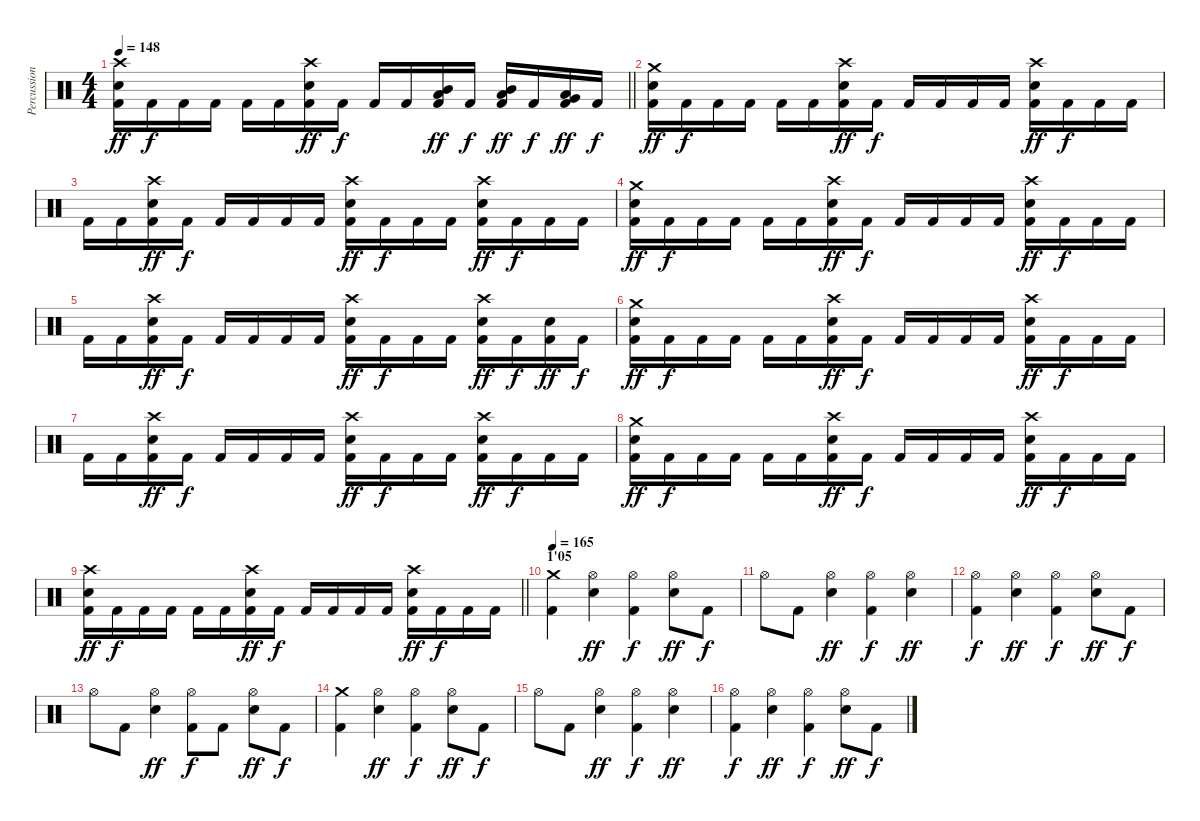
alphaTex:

\track ("Percussions" "Percussion") {instrument percussion}
\staff {score}
\articulation defaults
\ts (4 4)
\tempo 148
\clef neutral
\barLineRight lightlight
\ks c
("Crash high (hit)" "Electric Snare (hit)" "Kick (hit) 2").16{dy ff} "Kick (hit) 2".16{dy f} "Kick (hit) 2".16 "Kick (hit) 2".16 "Kick (hit) 2".16 "Kick (hit) 2".16 ("Crash high (hit)" "Electric Snare (hit)" "Kick (hit) 2").16{dy ff} "Kick (hit) 2".16{dy f} "Kick (hit) 2".16 "Kick (hit) 2".16 ("Mid Tom (hit)" "Low Tom (hit)" "Kick (hit) 2").16{dy ff} "Kick (hit) 2".16{dy f} ("Mid Tom (hit)" "Low Tom (hit)" "Kick (hit) 2").16{dy ff} "Kick (hit) 2".16{dy f} ("Low Tom (hit)" "Very Low Tom (hit)" "Kick (hit) 2").16{dy ff} "Kick (hit) 2".16{dy f} |
("Crash medium (hit)" "Electric Snare (hit)" "Kick (hit) 2").16{dy ff} "Kick (hit) 2".16{dy f} "Kick (hit) 2".16 "Kick (hit) 2".16 "Kick (hit) 2".16 "Kick (hit) 2".16 ("Crash high (hit)" "Electric Snare (hit)" "Kick (hit) 2").16{dy ff} "Kick (hit) 2".16{dy f} "Kick (hit) 2".16 "Kick (hit) 2".16 "Kick (hit) 2".16 "Kick (hit) 2".16 ("Crash high (hit)" "Electric Snare (hit)" "Kick (hit) 2").16{dy ff} "Kick (hit) 2".16{dy f} "Kick (hit) 2".16 "Kick (hit) 2".16 |
"Kick (hit) 2".16 "Kick (hit) 2".16 ("Crash high (hit)" "Electric Snare (hit)" "Kick (hit) 2").16{dy ff} "Kick (hit) 2".16{dy f} "Kick (hit) 2".16 "Kick (hit) 2".16 "Kick (hit) 2".16 "Kick (hit) 2".16 ("Crash high (hit)" "Electric Snare (hit)" "Kick (hit) 2").16{dy ff} "Kick (hit) 2".16{dy f} "Kick (hit) 2".16 "Kick (hit) 2".16 ("Crash high (hit)" "Electric Snare (hit)" "Kick (hit) 2").16{dy ff} "Kick (hit) 2".16{dy f} "Kick (hit) 2".16 "Kick (hit) 2".16 |
("Crash medium (hit)" "Electric Snare (hit)" "Kick (hit) 2").16{dy ff} "Kick (hit) 2".16{dy f} "Kick (hit) 2".16 "Kick (hit) 2".16 "Kick (hit) 2".16 "Kick (hit) 2".16 ("Crash high (hit)" "Electric Snare (hit)" "Kick (hit) 2").16{dy ff} "Kick (hit) 2".16{dy f} "Kick (hit) 2".16 "Kick (hit) 2".16 "Kick (hit) 2".16 "Kick (hit) 2".16 ("Crash high (hit)" "Electric Snare (hit)" "Kick (hit) 2").16{dy ff} "Kick (hit) 2".16{dy f} "Kick (hit) 2".16 "Kick (hit) 2".16 |
"Kick (hit) 2".16 "Kick (hit) 2".16 ("Crash high (hit)" "Electric Snare (hit)" "Kick (hit) 2").16{dy ff} "Kick (hit) 2".16{dy f} "Kick (hit) 2".16 "Kick (hit) 2".16 "Kick (hit) 2".16 "Kick (hit) 2".16 ("Crash high (hit)" "Electric Snare (hit)" "Kick (hit) 2").16{dy ff} "Kick (hit) 2".16{dy f} "Kick (hit) 2".16 "Kick (hit) 2".16 ("Crash high (hit)" "Electric Snare (hit)" "Kick (hit) 2").16{dy ff} "Kick (hit) 2".16{dy f} ("Electric Snare (hit)" "Kick (hit) 2").16{dy ff} "Kick (hit) 2".16{dy f} |
("Crash medium (hit)" "Electric Snare (hit)" "Kick (hit) 2").16{dy ff} "Kick (hit) 2".16{dy f} "Kick (hit) 2".16 "Kick (hit) 2".16 "Kick (hit) 2".16 "Kick (hit) 2".16 ("Crash high (hit)" "Electric Snare (hit)" "Kick (hit) 2").16{dy ff} "Kick (hit) 2".16{dy f} "Kick (hit) 2".16 "Kick (hit) 2".16 "Kick (hit) 2".16 "Kick (hit) 2".16 ("Crash high (hit)" "Electric Snare (hit)" "Kick (hit) 2").16{dy ff} "Kick (hit) 2".16{dy f} "Kick (hit) 2".16 "Kick (hit) 2".16 |
"Kick (hit) 2".16 "Kick (hit) 2".16 ("Crash high (hit)" "Electric Snare (hit)" "Kick (hit) 2").16{dy ff} "Kick (hit) 2".16{dy f} "Kick (hit) 2".16 "Kick (hit) 2".16 "Kick (hit) 2".16 "Kick (hit) 2".16 ("Crash high (hit)" "Electric Snare (hit)" "Kick (hit) 2").16{dy ff} "Kick (hit) 2".16{dy f} "Kick (hit) 2".16 "Kick (hit) 2".16 ("Crash high (hit)" "Electric Snare (hit)" "Kick (hit) 2").16{dy ff} "Kick (hit) 2".16{dy f} "Kick (hit) 2".16 "Kick (hit) 2".16 |
("Crash medium (hit)" "Electric Snare (hit)" "Kick (hit) 2").16{dy ff} "Kick (hit) 2".16{dy f} "Kick (hit) 2".16 "Kick (hit) 2".16 "Kick (hit) 2".16 "Kick (hit) 2".16 ("Crash high (hit)" "Electric Snare (hit)" "Kick (hit) 2").16{dy ff} "Kick (hit) 2".16{dy f} "Kick (hit) 2".16 "Kick (hit) 2".16 "Kick (hit) 2".16 "Kick (hit) 2".16 ("Crash high (hit)" "Electric Snare (hit)" "Kick (hit) 2").16{dy ff} "Kick (hit) 2".16{dy f} "Kick (hit) 2".16 "Kick (hit) 2".16 |
\barLineRight lightlight
("Crash high (hit)" "Electric Snare (hit)" "Kick (hit) 2").16{dy ff} "Kick (hit) 2".16{dy f} "Kick (hit) 2".16 "Kick (hit) 2".16 "Kick (hit) 2".16 "Kick (hit) 2".16 ("Crash high (hit)" "Electric Snare (hit)" "Kick (hit) 2").16{dy ff} "Kick (hit) 2".16{dy f} "Kick (hit) 2".16 "Kick (hit) 2".16 "Kick (hit) 2".16 "Kick (hit) 2".16 ("Crash high (hit)" "Electric Snare (hit)" "Kick (hit) 2").16{dy ff} "Kick (hit) 2".16{dy f} "Kick (hit) 2".16 "Kick (hit) 2".16 |
\section ("" "1'05")
\tempo 165
("Crash medium (hit)" "Kick (hit) 2").4 ("Hi-Hat (open)" "Electric Snare (hit)").4{dy ff} ("Hi-Hat (open)" "Kick (hit) 2").4{dy f} ("Hi-Hat (open)" "Electric Snare (hit)").8{dy ff} "Kick (hit) 2".8{dy f} |
"Hi-Hat (open)".8 "Kick (hit) 2".8 ("Hi-Hat (open)" "Electric Snare (hit)").4{dy ff} ("Hi-Hat (open)" "Kick (hit) 2").4{dy f} ("Hi-Hat (open)" "Electric Snare (hit)").4{dy ff} |
("Hi-Hat (open)" "Kick (hit) 2").4{dy f} ("Hi-Hat (open)" "Electric Snare (hit)").4{dy ff} ("Hi-Hat (open)" "Kick (hit) 2").4{dy f} ("Hi-Hat (open)" "Electric Snare (hit)").8{dy ff} "Kick (hit) 2".8{dy f} |
"Hi-Hat (open)".8 "Kick (hit) 2".8 ("Hi-Hat (open)" "Electric Snare (hit)").4{dy ff} ("Hi-Hat (open)" "Kick (hit) 2").8{dy f} "Kick (hit) 2".8 ("Hi-Hat (open)" "Electric Snare (hit)").8{dy ff} "Kick (hit) 2".8{dy f} |
("Crash medium (hit)" "Kick (hit) 2").4 ("Hi-Hat (open)" "Electric Snare (hit)").4{dy ff} ("Hi-Hat (open)" "Kick (hit) 2").4{dy f} ("Hi-Hat (open)" "Electric Snare (hit)").8{dy ff} "Kick (hit) 2".8{dy f} |
"Hi-Hat (open)".8 "Kick (hit) 2".8 ("Hi-Hat (open)" "Electric Snare (hit)").4{dy ff} ("Hi-Hat (open)" "Kick (hit) 2").4{dy f} ("Hi-Hat (open)" "Electric Snare (hit)").4{dy ff} |
("Hi-Hat (open)" "Kick (hit) 2").4{dy f} ("Hi-Hat (open)" "Electric Snare (hit)").4{dy ff} ("Hi-Hat (open)" "Kick (hit) 2").4{dy f} ("Hi-Hat (open)" "Electric Snare (hit)").8{dy ff} "Kick (hit) 2".8{dy f}
